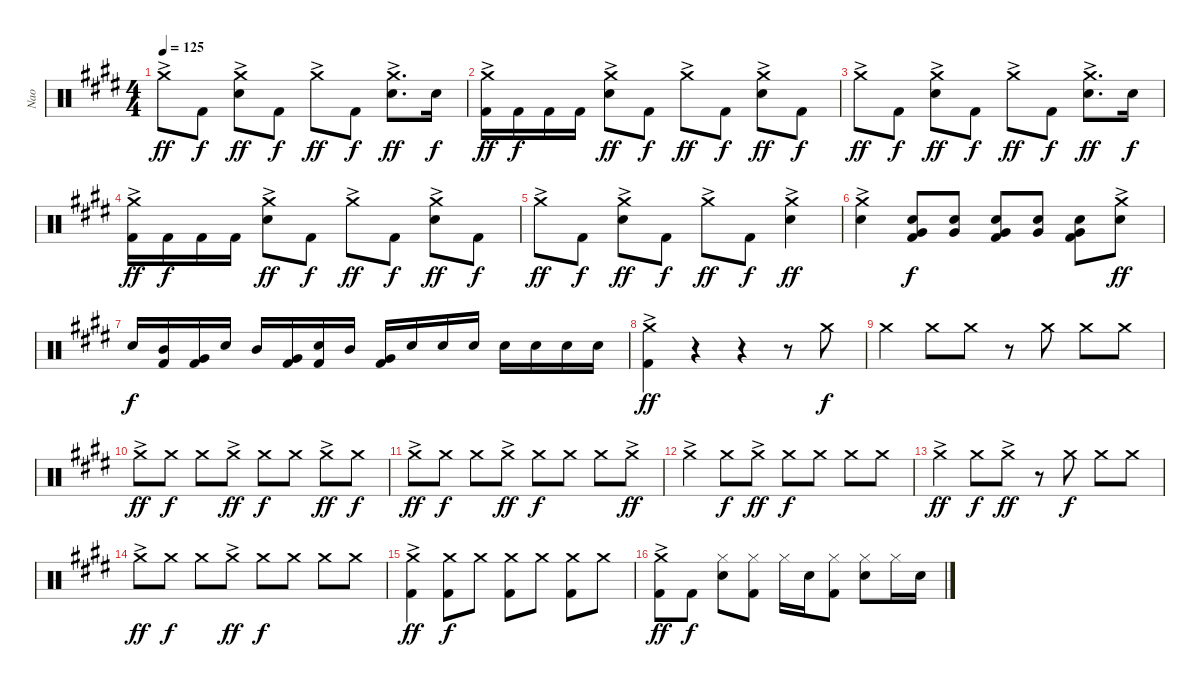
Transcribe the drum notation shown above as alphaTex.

\track ("Nao" "Nao") {instrument percussion}
\staff {score}
\articulation defaults
\ts (4 4)
\tempo 125
\clef neutral
\ks e "Crash medium (hit)"{ac}.8{dy ff} "Kick (hit) 2".8{dy f}
("Crash medium (hit)"{ac} "Snare (hit) 2").8{dy ff} "Kick (hit) 2".8{dy f} "Crash medium (hit)"{ac}.8{dy ff} "Kick (hit) 2".8{dy f} ("Crash medium (hit)"{ac} "Snare (hit) 2").8{d dy ff} "Snare (hit) 2".16{dy f} |
("Crash medium (hit)"{ac} "Kick (hit) 2").16{dy ff} "Kick (hit) 2".16{dy f} "Kick (hit) 2".16 "Kick (hit) 2".16 ("Crash medium (hit)"{ac} "Snare (hit) 2").8{dy ff} "Kick (hit) 2".8{dy f} "Crash medium (hit)"{ac}.8{dy ff} "Kick (hit) 2".8{dy f} ("Crash medium (hit)"{ac} "Snare (hit) 2").8{dy ff} "Kick (hit) 2".8{dy f} |
"Crash medium (hit)"{ac}.8{dy ff} "Kick (hit) 2".8{dy f} ("Crash medium (hit)"{ac} "Snare (hit) 2").8{dy ff} "Kick (hit) 2".8{dy f} "Crash medium (hit)"{ac}.8{dy ff} "Kick (hit) 2".8{dy f} ("Crash medium (hit)"{ac} "Snare (hit) 2").8{d dy ff} "Snare (hit) 2".16{dy f} |
("Crash medium (hit)"{ac} "Kick (hit) 2").16{dy ff} "Kick (hit) 2".16{dy f} "Kick (hit) 2".16 "Kick (hit) 2".16 ("Crash medium (hit)"{ac} "Snare (hit) 2").8{dy ff} "Kick (hit) 2".8{dy f} "Crash medium (hit)"{ac}.8{dy ff} "Kick (hit) 2".8{dy f} ("Crash medium (hit)"{ac} "Snare (hit) 2").8{dy ff} "Kick (hit) 2".8{dy f} |
"Crash medium (hit)"{ac}.8{dy ff} "Kick (hit) 2".8{dy f} ("Crash medium (hit)"{ac} "Snare (hit) 2").8{dy ff} "Kick (hit) 2".8{dy f} "Crash medium (hit)"{ac}.8{dy ff} "Kick (hit) 2".8{dy f} ("Crash medium (hit)"{ac} "Snare (hit) 2").4{dy ff} |
("Crash medium (hit)"{ac} "Snare (hit) 2").4 ("Snare (hit) 2" "Very Low Tom (hit)" "Kick (hit) 2").8{dy f} ("Snare (hit) 2" "Very Low Tom (hit)").8 ("Snare (hit) 2" "Very Low Tom (hit)" "Kick (hit) 2").8 ("Snare (hit) 2" "Very Low Tom (hit)").8 ("Snare (hit) 2" "Very Low Tom (hit)" "Kick (hit) 2").8 ("Crash medium (hit)"{ac} "Snare (hit) 2").8{dy ff} |
"Snare (hit) 2".16{dy f} ("Mid Tom (hit)" "Kick (hit) 2").16 ("Very Low Tom (hit)" "Kick (hit) 2").16 "Snare (hit) 2".16 "Mid Tom (hit)".16 ("Very Low Tom (hit)" "Kick (hit) 2").16 ("Snare (hit) 2" "Kick (hit) 2").16 "Mid Tom (hit)".16 ("Very Low Tom (hit)" "Kick (hit) 2").16 "Snare (hit) 2".16 "Snare (hit) 2".16 "Snare (hit) 2".16 "Snare (hit) 2".16 "Snare (hit) 2".16 "Snare (hit) 2".16 "Snare (hit) 2".16 |
("Crash medium (hit)"{ac} "Kick (hit) 2").4{dy ff} r.4 r.4 r.8 "Crash medium (hit)".8{dy f} |
"Crash medium (hit)".4 "Crash medium (hit)".8 "Crash medium (hit)".8 r.8 "Crash medium (hit)".8 "Crash medium (hit)".8 "Crash medium (hit)".8 |
"Crash medium (hit)"{ac}.8{dy ff} "Crash medium (hit)".8{dy f} "Crash medium (hit)".8 "Crash medium (hit)"{ac}.8{dy ff} "Crash medium (hit)".8{dy f} "Crash medium (hit)".8 "Crash medium (hit)"{ac}.8{dy ff} "Crash medium (hit)".8{dy f} |
"Crash medium (hit)"{ac}.8{dy ff} "Crash medium (hit)".8{dy f} "Crash medium (hit)".8 "Crash medium (hit)"{ac}.8{dy ff} "Crash medium (hit)".8{dy f} "Crash medium (hit)".8 "Crash medium (hit)".8 "Crash medium (hit)"{ac}.8{dy ff} |
"Crash medium (hit)"{ac}.4 "Crash medium (hit)".8{dy f} "Crash medium (hit)"{ac}.8{dy ff} "Crash medium (hit)".8{dy f} "Crash medium (hit)".8 "Crash medium (hit)".8 "Crash medium (hit)".8 |
"Crash medium (hit)"{ac}.4{dy ff} "Crash medium (hit)".8{dy f} "Crash medium (hit)"{ac}.8{dy ff} r.8 "Crash medium (hit)".8{dy f} "Crash medium (hit)".8 "Crash medium (hit)".8 |
"Crash medium (hit)"{ac}.8{dy ff} "Crash medium (hit)".8{dy f} "Crash medium (hit)".8 "Crash medium (hit)"{ac}.8{dy ff} "Crash medium (hit)".8{dy f} "Crash medium (hit)".8 "Crash medium (hit)".8 "Crash medium (hit)".8 |
("Crash medium (hit)"{ac} "Kick (hit) 2").4{dy ff} ("Crash medium (hit)" "Kick (hit) 2").8{dy f} "Crash medium (hit)".8 ("Crash medium (hit)" "Kick (hit) 2").8 "Crash medium (hit)".8 ("Crash medium (hit)" "Kick (hit) 2").8 "Crash medium (hit)".8 |
("Crash medium (hit)"{ac} "Kick (hit) 2").8{dy ff} "Kick (hit) 2".8{dy f} ("Hi-Hat (closed)" "Snare (hit) 2").8 ("Hi-Hat (closed)" "Kick (hit) 2").8 "Hi-Hat (closed)".16 "Snare (hit) 2".16 ("Hi-Hat (closed)" "Kick (hit) 2").8 ("Hi-Hat (closed)" "Snare (hit) 2").8 "Hi-Hat (closed)".16 "Snare (hit) 2".16
